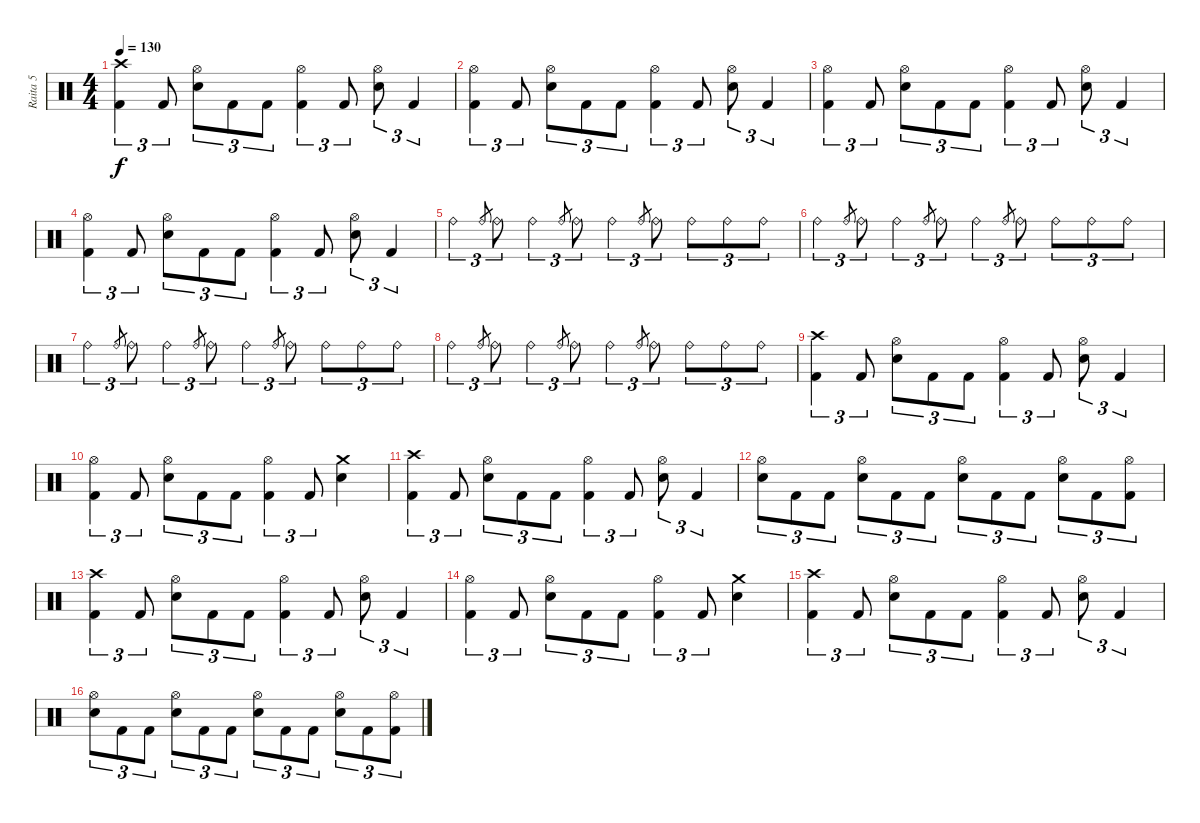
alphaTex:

\track ("Raita 5" "Raita 5") {instrument percussion}
\staff {score}
\articulation defaults
\ts (4 4)
\tempo 130
\clef neutral
\ks c
("Crash high (hit)" "Kick (hit) 2").4{tu (3 2) dy f} "Kick (hit) 2".8{tu (3 2)} ("Hi-Hat (open)" "Snare (hit) 2").8{tu (3 2)} "Kick (hit) 2".8{tu (3 2)} "Kick (hit) 2".8{tu (3 2)} ("Hi-Hat (open)" "Kick (hit) 2").4{tu (3 2)} "Kick (hit) 2".8{tu (3 2)} ("Hi-Hat (open)" "Snare (hit) 2").8{tu (3 2)} "Kick (hit) 2".4{tu (3 2)} |
("Hi-Hat (open)" "Kick (hit) 2").4{tu (3 2)} "Kick (hit) 2".8{tu (3 2)} ("Hi-Hat (open)" "Snare (hit) 2").8{tu (3 2)} "Kick (hit) 2".8{tu (3 2)} "Kick (hit) 2".8{tu (3 2)} ("Hi-Hat (open)" "Kick (hit) 2").4{tu (3 2)} "Kick (hit) 2".8{tu (3 2)} ("Hi-Hat (open)" "Snare (hit) 2").8{tu (3 2)} "Kick (hit) 2".4{tu (3 2)} |
("Hi-Hat (open)" "Kick (hit) 2").4{tu (3 2)} "Kick (hit) 2".8{tu (3 2)} ("Hi-Hat (open)" "Snare (hit) 2").8{tu (3 2)} "Kick (hit) 2".8{tu (3 2)} "Kick (hit) 2".8{tu (3 2)} ("Hi-Hat (open)" "Kick (hit) 2").4{tu (3 2)} "Kick (hit) 2".8{tu (3 2)} ("Hi-Hat (open)" "Snare (hit) 2").8{tu (3 2)} "Kick (hit) 2".4{tu (3 2)} |
("Hi-Hat (open)" "Kick (hit) 2").4{tu (3 2)} "Kick (hit) 2".8{tu (3 2)} ("Hi-Hat (open)" "Snare (hit) 2").8{tu (3 2)} "Kick (hit) 2".8{tu (3 2)} "Kick (hit) 2".8{tu (3 2)} ("Hi-Hat (open)" "Kick (hit) 2").4{tu (3 2)} "Kick (hit) 2".8{tu (3 2)} ("Hi-Hat (open)" "Snare (hit) 2").8{tu (3 2)} "Kick (hit) 2".4{tu (3 2)} |
"Ride (bell)".4{tu (3 2)} "Ride (bell)".8{gr} "Ride (bell)".8{tu (3 2)} "Ride (bell)".4{tu (3 2)} "Ride (bell)".8{gr} "Ride (bell)".8{tu (3 2)} "Ride (bell)".4{tu (3 2)} "Ride (bell)".8{gr} "Ride (bell)".8{tu (3 2)} "Ride (bell)".8{tu (3 2)} "Ride (bell)".8{tu (3 2)} "Ride (bell)".8{tu (3 2)} |
"Ride (bell)".4{tu (3 2)} "Ride (bell)".8{gr} "Ride (bell)".8{tu (3 2)} "Ride (bell)".4{tu (3 2)} "Ride (bell)".8{gr} "Ride (bell)".8{tu (3 2)} "Ride (bell)".4{tu (3 2)} "Ride (bell)".8{gr} "Ride (bell)".8{tu (3 2)} "Ride (bell)".8{tu (3 2)} "Ride (bell)".8{tu (3 2)} "Ride (bell)".8{tu (3 2)} |
"Ride (bell)".4{tu (3 2)} "Ride (bell)".8{gr} "Ride (bell)".8{tu (3 2)} "Ride (bell)".4{tu (3 2)} "Ride (bell)".8{gr} "Ride (bell)".8{tu (3 2)} "Ride (bell)".4{tu (3 2)} "Ride (bell)".8{gr} "Ride (bell)".8{tu (3 2)} "Ride (bell)".8{tu (3 2)} "Ride (bell)".8{tu (3 2)} "Ride (bell)".8{tu (3 2)} |
"Ride (bell)".4{tu (3 2)} "Ride (bell)".8{gr} "Ride (bell)".8{tu (3 2)} "Ride (bell)".4{tu (3 2)} "Ride (bell)".8{gr} "Ride (bell)".8{tu (3 2)} "Ride (bell)".4{tu (3 2)} "Ride (bell)".8{gr} "Ride (bell)".8{tu (3 2)} "Ride (bell)".8{tu (3 2)} "Ride (bell)".8{tu (3 2)} "Ride (bell)".8{tu (3 2)} |
("Crash high (hit)" "Kick (hit) 2").4{tu (3 2)} "Kick (hit) 2".8{tu (3 2)} ("Hi-Hat (open)" "Snare (hit) 2").8{tu (3 2)} "Kick (hit) 2".8{tu (3 2)} "Kick (hit) 2".8{tu (3 2)} ("Hi-Hat (open)" "Kick (hit) 2").4{tu (3 2)} "Kick (hit) 2".8{tu (3 2)} ("Hi-Hat (open)" "Snare (hit) 2").8{tu (3 2)} "Kick (hit) 2".4{tu (3 2)} |
("Hi-Hat (open)" "Kick (hit) 2").4{tu (3 2)} "Kick (hit) 2".8{tu (3 2)} ("Hi-Hat (open)" "Snare (hit) 2").8{tu (3 2)} "Kick (hit) 2".8{tu (3 2)} "Kick (hit) 2".8{tu (3 2)} ("Hi-Hat (open)" "Kick (hit) 2").4{tu (3 2)} "Kick (hit) 2".8{tu (3 2)} ("Crash medium (hit)" "Snare (hit) 2").4 |
("Crash high (hit)" "Kick (hit) 2").4{tu (3 2)} "Kick (hit) 2".8{tu (3 2)} ("Hi-Hat (open)" "Snare (hit) 2").8{tu (3 2)} "Kick (hit) 2".8{tu (3 2)} "Kick (hit) 2".8{tu (3 2)} ("Hi-Hat (open)" "Kick (hit) 2").4{tu (3 2)} "Kick (hit) 2".8{tu (3 2)} ("Hi-Hat (open)" "Snare (hit) 2").8{tu (3 2)} "Kick (hit) 2".4{tu (3 2)} |
("Hi-Hat (open)" "Snare (hit) 2").8{tu (3 2)} "Kick (hit) 2".8{tu (3 2)} "Kick (hit) 2".8{tu (3 2)} ("Hi-Hat (open)" "Snare (hit) 2").8{tu (3 2)} "Kick (hit) 2".8{tu (3 2)} "Kick (hit) 2".8{tu (3 2)} ("Hi-Hat (open)" "Snare (hit) 2").8{tu (3 2)} "Kick (hit) 2".8{tu (3 2)} "Kick (hit) 2".8{tu (3 2)} ("Hi-Hat (open)" "Snare (hit) 2").8{tu (3 2)} "Kick (hit) 2".8{tu (3 2)} ("Hi-Hat (open)" "Kick (hit) 2").8{tu (3 2)} |
("Crash high (hit)" "Kick (hit) 2").4{tu (3 2)} "Kick (hit) 2".8{tu (3 2)} ("Hi-Hat (open)" "Snare (hit) 2").8{tu (3 2)} "Kick (hit) 2".8{tu (3 2)} "Kick (hit) 2".8{tu (3 2)} ("Hi-Hat (open)" "Kick (hit) 2").4{tu (3 2)} "Kick (hit) 2".8{tu (3 2)} ("Hi-Hat (open)" "Snare (hit) 2").8{tu (3 2)} "Kick (hit) 2".4{tu (3 2)} |
("Hi-Hat (open)" "Kick (hit) 2").4{tu (3 2)} "Kick (hit) 2".8{tu (3 2)} ("Hi-Hat (open)" "Snare (hit) 2").8{tu (3 2)} "Kick (hit) 2".8{tu (3 2)} "Kick (hit) 2".8{tu (3 2)} ("Hi-Hat (open)" "Kick (hit) 2").4{tu (3 2)} "Kick (hit) 2".8{tu (3 2)} ("Crash medium (hit)" "Snare (hit) 2").4 |
("Crash high (hit)" "Kick (hit) 2").4{tu (3 2)} "Kick (hit) 2".8{tu (3 2)} ("Hi-Hat (open)" "Snare (hit) 2").8{tu (3 2)} "Kick (hit) 2".8{tu (3 2)} "Kick (hit) 2".8{tu (3 2)} ("Hi-Hat (open)" "Kick (hit) 2").4{tu (3 2)} "Kick (hit) 2".8{tu (3 2)} ("Hi-Hat (open)" "Snare (hit) 2").8{tu (3 2)} "Kick (hit) 2".4{tu (3 2)} |
("Hi-Hat (open)" "Snare (hit) 2").8{tu (3 2)} "Kick (hit) 2".8{tu (3 2)} "Kick (hit) 2".8{tu (3 2)} ("Hi-Hat (open)" "Snare (hit) 2").8{tu (3 2)} "Kick (hit) 2".8{tu (3 2)} "Kick (hit) 2".8{tu (3 2)} ("Hi-Hat (open)" "Snare (hit) 2").8{tu (3 2)} "Kick (hit) 2".8{tu (3 2)} "Kick (hit) 2".8{tu (3 2)} ("Hi-Hat (open)" "Snare (hit) 2").8{tu (3 2)} "Kick (hit) 2".8{tu (3 2)} ("Hi-Hat (open)" "Kick (hit) 2").8{tu (3 2)}
